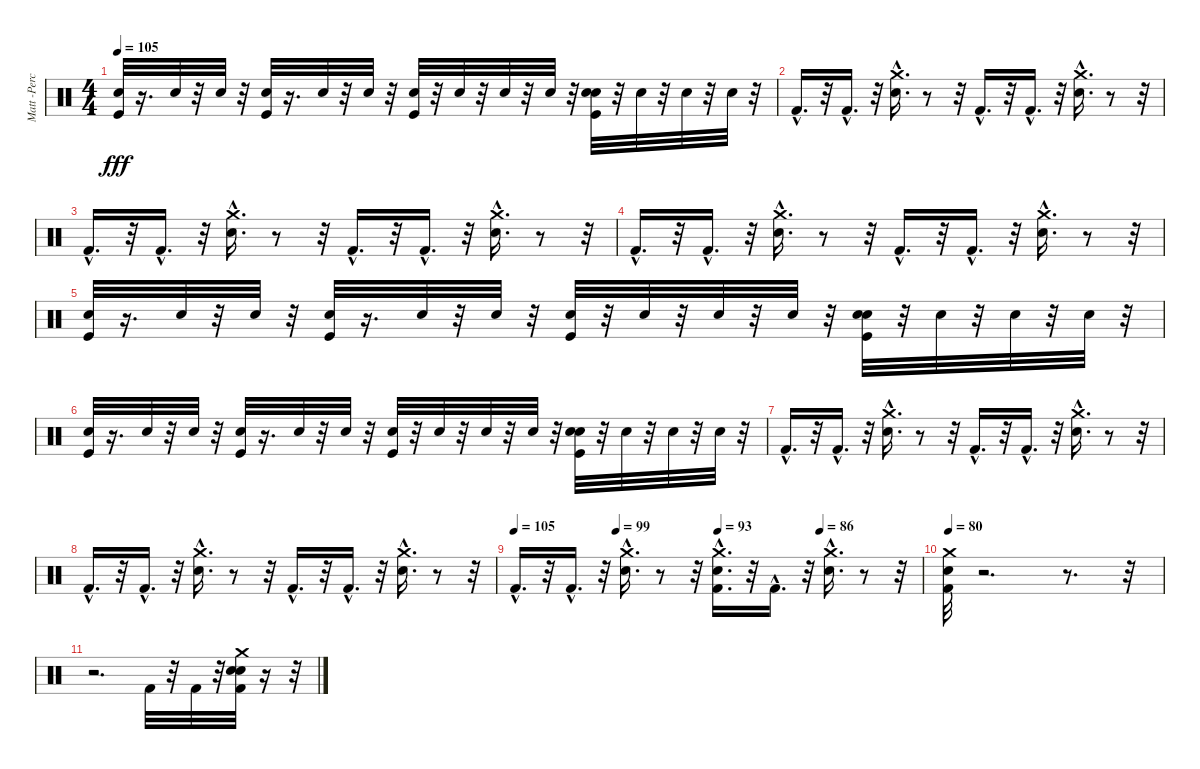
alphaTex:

\track ("Matt -Percussion-" "Matt -Perc") {instrument percussion}
\staff {score}
\articulation defaults
\ts (4 4)
\tempo 105
\clef neutral
\ks c
("Snare (hit) 2" "Kick (hit)").32{dy fff} r.16{d} "Snare (hit) 2".32 r.32 "Snare (hit) 2".32 r.32 ("Snare (hit) 2" "Kick (hit)").32 r.16{d} "Snare (hit) 2".32 r.32 "Snare (hit) 2".32 r.32 ("Snare (hit) 2" "Kick (hit)").32 r.32 "Snare (hit) 2".32 r.32 "Snare (hit) 2".32 r.32 "Snare (hit) 2".32 r.32 ("Electric Snare (hit)" "Snare (hit) 2" "Kick (hit)").32 r.32 "Snare (hit) 2".32 r.32 "Snare (hit) 2".32 r.32 "Snare (hit) 2".32 r.32 |
"Kick (hit) 2"{hac}.16{d} r.32 "Kick (hit) 2"{hac}.16{d} r.32 ("Snare (hit) 2"{hac} "Crash medium (hit)"{hac}).16{d} r.8 r.32 "Kick (hit) 2"{hac}.16{d} r.32 "Kick (hit) 2"{hac}.16{d} r.32 ("Snare (hit) 2"{hac} "Crash medium (hit)"{hac}).16{d} r.8 r.32 |
"Kick (hit) 2"{hac}.16{d} r.32 "Kick (hit) 2"{hac}.16{d} r.32 ("Snare (hit) 2"{hac} "Crash medium (hit)"{hac}).16{d} r.8 r.32 "Kick (hit) 2"{hac}.16{d} r.32 "Kick (hit) 2"{hac}.16{d} r.32 ("Snare (hit) 2"{hac} "Crash medium (hit)"{hac}).16{d} r.8 r.32 |
"Kick (hit) 2"{hac}.16{d} r.32 "Kick (hit) 2"{hac}.16{d} r.32 ("Snare (hit) 2"{hac} "Crash medium (hit)"{hac}).16{d} r.8 r.32 "Kick (hit) 2"{hac}.16{d} r.32 "Kick (hit) 2"{hac}.16{d} r.32 ("Snare (hit) 2"{hac} "Crash medium (hit)"{hac}).16{d} r.8 r.32 |
("Snare (hit) 2" "Kick (hit)").32 r.16{d} "Snare (hit) 2".32 r.32 "Snare (hit) 2".32 r.32 ("Snare (hit) 2" "Kick (hit)").32 r.16{d} "Snare (hit) 2".32 r.32 "Snare (hit) 2".32 r.32 ("Snare (hit) 2" "Kick (hit)").32 r.32 "Snare (hit) 2".32 r.32 "Snare (hit) 2".32 r.32 "Snare (hit) 2".32 r.32 ("Electric Snare (hit)" "Snare (hit) 2" "Kick (hit)").32 r.32 "Snare (hit) 2".32 r.32 "Snare (hit) 2".32 r.32 "Snare (hit) 2".32 r.32 |
("Snare (hit) 2" "Kick (hit)").32 r.16{d} "Snare (hit) 2".32 r.32 "Snare (hit) 2".32 r.32 ("Snare (hit) 2" "Kick (hit)").32 r.16{d} "Snare (hit) 2".32 r.32 "Snare (hit) 2".32 r.32 ("Snare (hit) 2" "Kick (hit)").32 r.32 "Snare (hit) 2".32 r.32 "Snare (hit) 2".32 r.32 "Snare (hit) 2".32 r.32 ("Electric Snare (hit)" "Snare (hit) 2" "Kick (hit)").32 r.32 "Snare (hit) 2".32 r.32 "Snare (hit) 2".32 r.32 "Snare (hit) 2".32 r.32 |
"Kick (hit) 2"{hac}.16{d} r.32 "Kick (hit) 2"{hac}.16{d} r.32 ("Snare (hit) 2"{hac} "Crash medium (hit)"{hac}).16{d} r.8 r.32 "Kick (hit) 2"{hac}.16{d} r.32 "Kick (hit) 2"{hac}.16{d} r.32 ("Snare (hit) 2"{hac} "Crash medium (hit)"{hac}).16{d} r.8 r.32 |
"Kick (hit) 2"{hac}.16{d} r.32 "Kick (hit) 2"{hac}.16{d} r.32 ("Snare (hit) 2"{hac} "Crash medium (hit)"{hac}).16{d} r.8 r.32 "Kick (hit) 2"{hac}.16{d} r.32 "Kick (hit) 2"{hac}.16{d} r.32 ("Snare (hit) 2"{hac} "Crash medium (hit)"{hac}).16{d} r.8 r.32 |
\tempo 105
\tempo (99 0.25)
\tempo (93 0.5)
\tempo (86 0.75)
"Kick (hit) 2"{hac}.16{d} r.32 "Kick (hit) 2"{hac}.16{d} r.32 ("Snare (hit) 2"{hac} "Crash medium (hit)"{hac}).16{d} r.8 r.32 ("Kick (hit) 2"{hac} "Crash medium (hit)" "Snare (hit) 2").16{d} r.32 "Kick (hit) 2"{hac}.16{d} r.32 ("Snare (hit) 2"{hac} "Crash medium (hit)"{hac}).16{d} r.8 r.32 |
\tempo 80
("Crash medium (hit)" "Snare (hit) 2" "Kick (hit) 2").32 r.2{d} r.8{d} r.32 |
r.2{d} "Kick (hit) 2".32 r.32 "Kick (hit) 2".32 r.32 ("Snare (hit) 2" "Electric Snare (hit)" "Kick (hit) 2" "Crash medium (hit)").32 r.16 r.32
